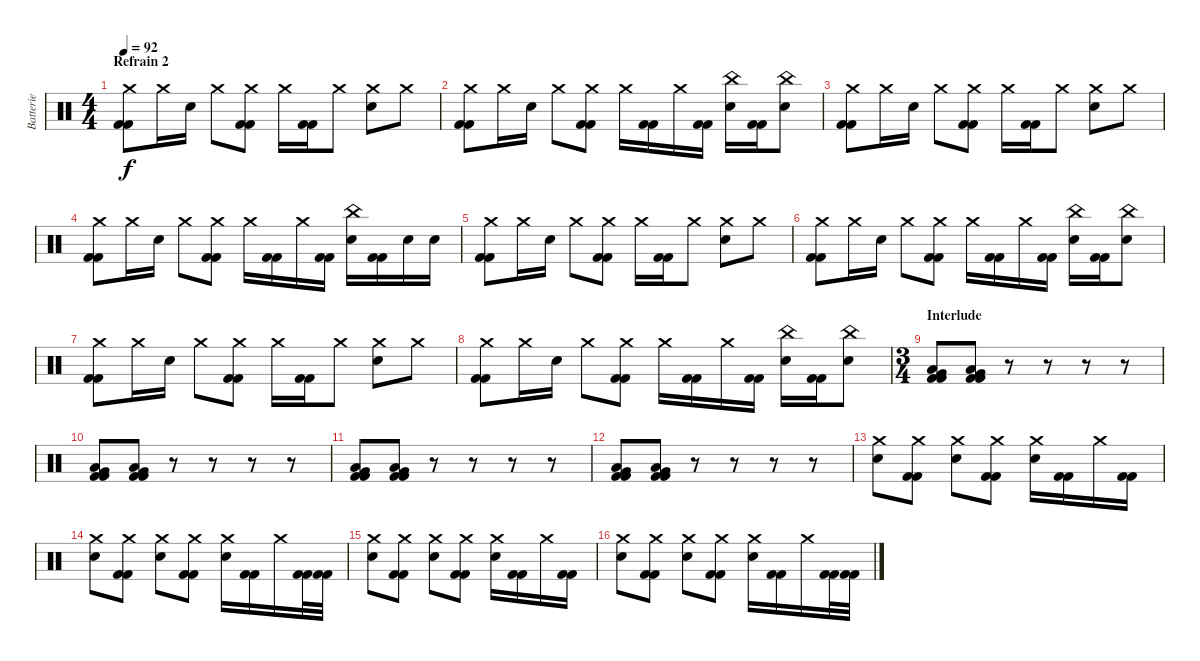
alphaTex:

\track ("Batterie" "Batterie") {instrument percussion}
\staff {score}
\articulation defaults
\ts (4 4)
\section ("" "Refrain 2")
\tempo 92
\clef neutral
\ks c
("Kick (hit) 2" "Crash medium (hit)" "Kick (hit) 2").8{dy f} "Crash medium (hit)".16 "Electric Snare (hit)".16 "Crash medium (hit)".8 ("Kick (hit) 2" "Crash medium (hit)" "Kick (hit) 2").8 "Crash medium (hit)".16 ("Kick (hit) 2" "Kick (hit) 2").16 "Crash medium (hit)".8 ("Crash medium (hit)" "Electric Snare (hit)").8 "Crash medium (hit)".8 |
("Kick (hit) 2" "Crash medium (hit)" "Kick (hit) 2").8 "Crash medium (hit)".16 "Electric Snare (hit)".16 "Crash medium (hit)".8 ("Kick (hit) 2" "Crash medium (hit)" "Kick (hit) 2").8 "Crash medium (hit)".16 ("Kick (hit) 2" "Kick (hit) 2").16 "Crash medium (hit)".16 ("Kick (hit) 2" "Kick (hit) 2").16 ("China (hit)" "Electric Snare (hit)").16 ("Kick (hit) 2" "Kick (hit) 2").16 ("China (hit)" "Electric Snare (hit)").8 |
("Kick (hit) 2" "Crash medium (hit)" "Kick (hit) 2").8 "Crash medium (hit)".16 "Electric Snare (hit)".16 "Crash medium (hit)".8 ("Kick (hit) 2" "Crash medium (hit)" "Kick (hit) 2").8 "Crash medium (hit)".16 ("Kick (hit) 2" "Kick (hit) 2").16 "Crash medium (hit)".8 ("Crash medium (hit)" "Electric Snare (hit)").8 "Crash medium (hit)".8 |
("Kick (hit) 2" "Crash medium (hit)" "Kick (hit) 2").8 "Crash medium (hit)".16 "Electric Snare (hit)".16 "Crash medium (hit)".8 ("Kick (hit) 2" "Crash medium (hit)" "Kick (hit) 2").8 "Crash medium (hit)".16 ("Kick (hit) 2" "Kick (hit) 2").16 "Crash medium (hit)".16 ("Kick (hit) 2" "Kick (hit) 2").16 ("China (hit)" "Electric Snare (hit)").16 ("Kick (hit) 2" "Kick (hit) 2").16 "Electric Snare (hit)".16 "Electric Snare (hit)".16 |
("Kick (hit) 2" "Crash medium (hit)" "Kick (hit) 2").8 "Crash medium (hit)".16 "Electric Snare (hit)".16 "Crash medium (hit)".8 ("Kick (hit) 2" "Crash medium (hit)" "Kick (hit) 2").8 "Crash medium (hit)".16 ("Kick (hit) 2" "Kick (hit) 2").16 "Crash medium (hit)".8 ("Crash medium (hit)" "Electric Snare (hit)").8 "Crash medium (hit)".8 |
("Kick (hit) 2" "Crash medium (hit)" "Kick (hit) 2").8 "Crash medium (hit)".16 "Electric Snare (hit)".16 "Crash medium (hit)".8 ("Kick (hit) 2" "Crash medium (hit)" "Kick (hit) 2").8 "Crash medium (hit)".16 ("Kick (hit) 2" "Kick (hit) 2").16 "Crash medium (hit)".16 ("Kick (hit) 2" "Kick (hit) 2").16 ("China (hit)" "Electric Snare (hit)").16 ("Kick (hit) 2" "Kick (hit) 2").16 ("China (hit)" "Electric Snare (hit)").8 |
("Kick (hit) 2" "Crash medium (hit)" "Kick (hit) 2").8 "Crash medium (hit)".16 "Electric Snare (hit)".16 "Crash medium (hit)".8 ("Kick (hit) 2" "Crash medium (hit)" "Kick (hit) 2").8 "Crash medium (hit)".16 ("Kick (hit) 2" "Kick (hit) 2").16 "Crash medium (hit)".8 ("Crash medium (hit)" "Electric Snare (hit)").8 "Crash medium (hit)".8 |
("Kick (hit) 2" "Crash medium (hit)" "Kick (hit) 2").8 "Crash medium (hit)".16 "Electric Snare (hit)".16 "Crash medium (hit)".8 ("Kick (hit) 2" "Crash medium (hit)" "Kick (hit) 2").8 "Crash medium (hit)".16 ("Kick (hit) 2" "Kick (hit) 2").16 "Crash medium (hit)".16 ("Kick (hit) 2" "Kick (hit) 2").16 ("China (hit)" "Electric Snare (hit)").16 ("Kick (hit) 2" "Kick (hit) 2").16 ("China (hit)" "Electric Snare (hit)").8 |
\ts (3 4)
\section ("" "Interlude")
("Kick (hit) 2" "Low Tom (hit)" "Very Low Tom (hit)" "Kick (hit) 2").8 ("Kick (hit) 2" "Low Tom (hit)" "Very Low Tom (hit)" "Kick (hit) 2").8 r.8 r.8 r.8 r.8 |
("Kick (hit) 2" "Low Tom (hit)" "Very Low Tom (hit)" "Kick (hit) 2").8 ("Kick (hit) 2" "Low Tom (hit)" "Very Low Tom (hit)" "Kick (hit) 2").8 r.8 r.8 r.8 r.8 |
("Kick (hit) 2" "Low Tom (hit)" "Very Low Tom (hit)" "Kick (hit) 2").8 ("Kick (hit) 2" "Low Tom (hit)" "Very Low Tom (hit)" "Kick (hit) 2").8 r.8 r.8 r.8 r.8 |
("Kick (hit) 2" "Low Tom (hit)" "Very Low Tom (hit)" "Kick (hit) 2").8 ("Kick (hit) 2" "Low Tom (hit)" "Very Low Tom (hit)" "Kick (hit) 2").8 r.8 r.8 r.8 r.8 |
("Crash medium (hit)" "Electric Snare (hit)").8 ("Kick (hit) 2" "Crash medium (hit)" "Kick (hit) 2").8 ("Crash medium (hit)" "Electric Snare (hit)").8 ("Kick (hit) 2" "Crash medium (hit)" "Kick (hit) 2").8 ("Crash medium (hit)" "Electric Snare (hit)").16 ("Kick (hit) 2" "Kick (hit) 2").16 "Crash medium (hit)".16 ("Kick (hit) 2" "Kick (hit) 2").16 |
("Crash medium (hit)" "Electric Snare (hit)").8 ("Kick (hit) 2" "Crash medium (hit)" "Kick (hit) 2").8 ("Crash medium (hit)" "Electric Snare (hit)").8 ("Kick (hit) 2" "Crash medium (hit)" "Kick (hit) 2").8 ("Crash medium (hit)" "Electric Snare (hit)").16 ("Kick (hit) 2" "Kick (hit) 2").16 "Crash medium (hit)".16 ("Kick (hit) 2" "Kick (hit) 2").32 ("Kick (hit) 2" "Kick (hit) 2").32 |
("Crash medium (hit)" "Electric Snare (hit)").8 ("Kick (hit) 2" "Crash medium (hit)" "Kick (hit) 2").8 ("Crash medium (hit)" "Electric Snare (hit)").8 ("Kick (hit) 2" "Crash medium (hit)" "Kick (hit) 2").8 ("Crash medium (hit)" "Electric Snare (hit)").16 ("Kick (hit) 2" "Kick (hit) 2").16 "Crash medium (hit)".16 ("Kick (hit) 2" "Kick (hit) 2").16 |
("Crash medium (hit)" "Electric Snare (hit)").8 ("Kick (hit) 2" "Crash medium (hit)" "Kick (hit) 2").8 ("Crash medium (hit)" "Electric Snare (hit)").8 ("Kick (hit) 2" "Crash medium (hit)" "Kick (hit) 2").8 ("Crash medium (hit)" "Electric Snare (hit)").16 ("Kick (hit) 2" "Kick (hit) 2").16 "Crash medium (hit)".16 ("Kick (hit) 2" "Kick (hit) 2").32 ("Kick (hit) 2" "Kick (hit) 2").32
